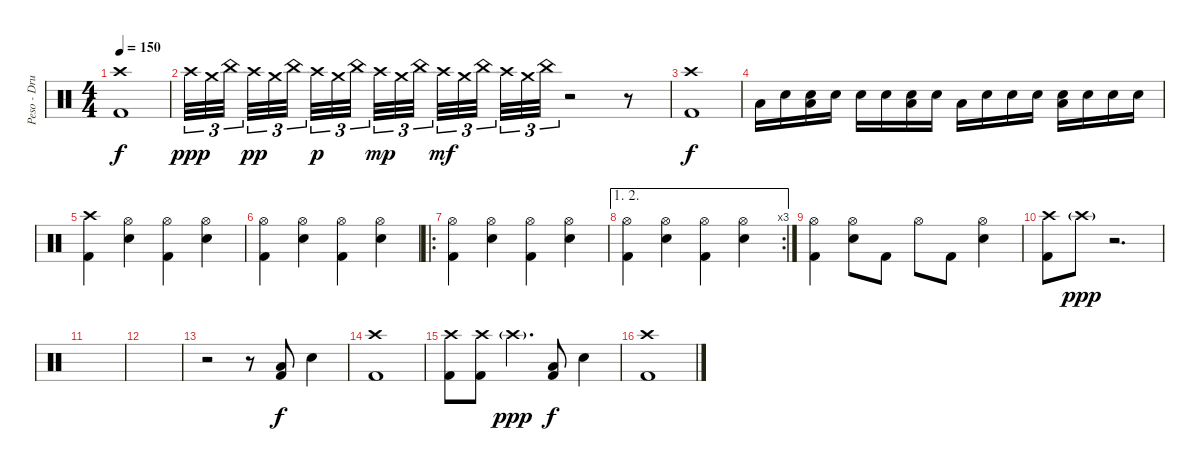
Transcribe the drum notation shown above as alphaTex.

\track ("Peso - Drums" "Peso - Dru") {instrument percussion}
\staff {score}
\articulation defaults
\ts (4 4)
\tempo 150
\clef neutral
\ks c
("Crash high (hit)" "Kick (hit) 2").1{dy f} |
"Crash high (hit)".32{tu (3 2) dy ppp} "Crash medium (hit)".32{tu (3 2)} "China (hit)".32{tu (3 2) beam splitsecondary} "Crash high (hit)".32{tu (3 2) dy pp} "Crash medium (hit)".32{tu (3 2)} "China (hit)".32{tu (3 2) beam splitsecondary} "Crash high (hit)".32{tu (3 2) dy p} "Crash medium (hit)".32{tu (3 2)} "China (hit)".32{tu (3 2) beam splitsecondary} "Crash high (hit)".32{tu (3 2) dy mp} "Crash medium (hit)".32{tu (3 2)} "China (hit)".32{tu (3 2)} "Crash high (hit)".32{tu (3 2) dy mf} "Crash medium (hit)".32{tu (3 2)} "China (hit)".32{tu (3 2) beam splitsecondary} "Crash high (hit)".32{tu (3 2)} "Crash medium (hit)".32{tu (3 2)} "China (hit)".32{tu (3 2)} r.2 r.8 |
("Crash high (hit)" "Kick (hit) 2").1{dy f} |
"Low Tom (hit)".16 "Electric Snare (hit)".16 ("Low Tom (hit)" "Electric Snare (hit)").16 "Electric Snare (hit)".16 "Electric Snare (hit)".16 "Electric Snare (hit)".16 ("Low Tom (hit)" "Electric Snare (hit)").16 "Electric Snare (hit)".16 "Low Tom (hit)".16 "Electric Snare (hit)".16 "Electric Snare (hit)".16 "Electric Snare (hit)".16 ("Low Tom (hit)" "Electric Snare (hit)").16 "Electric Snare (hit)".16 "Electric Snare (hit)".16 "Electric Snare (hit)".16 |
("Crash high (hit)" "Kick (hit) 2").4 ("Hi-Hat (open)" "Electric Snare (hit)").4 ("Hi-Hat (open)" "Kick (hit) 2").4 ("Hi-Hat (open)" "Electric Snare (hit)").4 |
("Hi-Hat (open)" "Kick (hit) 2").4 ("Hi-Hat (open)" "Electric Snare (hit)").4 ("Hi-Hat (open)" "Kick (hit) 2").4 ("Hi-Hat (open)" "Electric Snare (hit)").4 |
\ro
("Hi-Hat (open)" "Kick (hit) 2").4 ("Hi-Hat (open)" "Electric Snare (hit)").4 ("Hi-Hat (open)" "Kick (hit) 2").4 ("Hi-Hat (open)" "Electric Snare (hit)").4 |
\ae (1 2)
\rc 3
("Hi-Hat (open)" "Kick (hit) 2").4 ("Hi-Hat (open)" "Electric Snare (hit)").4 ("Hi-Hat (open)" "Kick (hit) 2").4 ("Hi-Hat (open)" "Electric Snare (hit)").4 |
("Hi-Hat (open)" "Kick (hit) 2").4 ("Hi-Hat (open)" "Electric Snare (hit)").8 "Kick (hit) 2".8 "Hi-Hat (open)".8 "Kick (hit) 2".8 ("Hi-Hat (open)" "Electric Snare (hit)").4 |
("Crash high (hit)" "Kick (hit) 2").8 "Crash high (hit)"{g}.8{dy ppp} r.2{d} |
|
|
r.2 r.8 ("Low Floor Tom (hit)" "Kick (hit) 2").8{dy f} "Electric Snare (hit)".4 |
("Crash high (hit)" "Kick (hit) 2").1 |
("Crash high (hit)" "Kick (hit) 2").8 ("Crash high (hit)" "Kick (hit) 2").8 "Crash high (hit)"{g}.4{d dy ppp} ("Low Floor Tom (hit)" "Kick (hit) 2").8{dy f} "Electric Snare (hit)".4 |
("Crash high (hit)" "Kick (hit) 2").1
